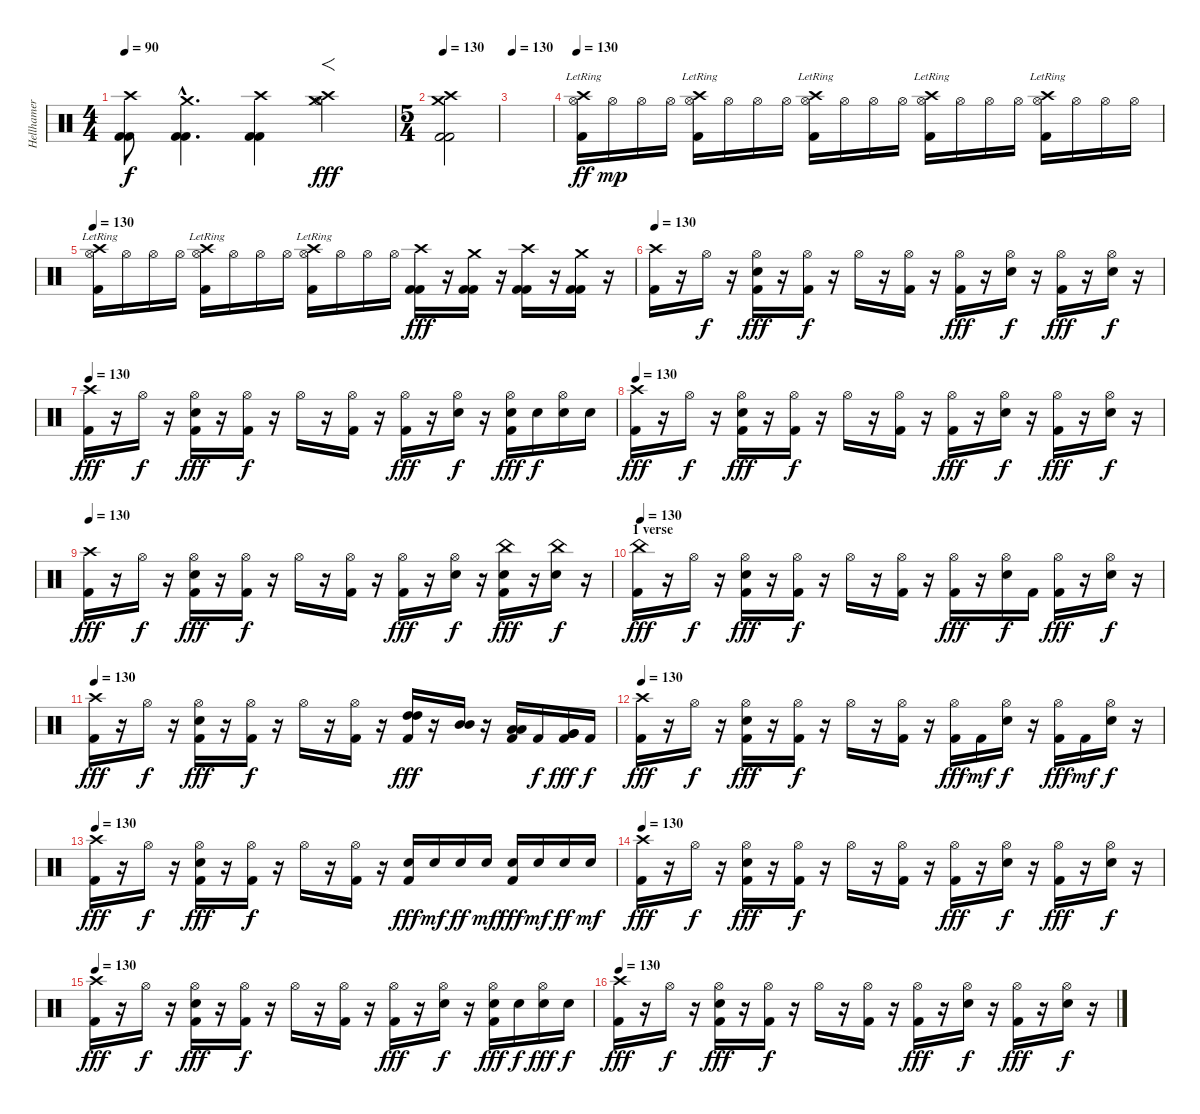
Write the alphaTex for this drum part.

\track ("Hellhamer" "Hellhamer") {instrument percussion}
\staff {score}
\articulation defaults
\ts (4 4)
\tempo 90
\clef neutral
\ks c
("Crash high (hit)" "Kick (hit) 2" "Kick (hit) 2").8{dy f} ("Crash medium (hit)"{hac} "Kick (hit) 2"{hac} "Kick (hit) 2"{hac}).4{d} ("Crash high (hit)" "Kick (hit) 2" "Kick (hit) 2").4 ("Crash high (hit)" "Crash medium (hit)" "Hi-Hat (open)").4{f dy fff} |
\ts (5 4)
\tempo 130
("Crash high (hit)" "Crash medium (hit)" "Kick (hit) 2" "Kick (hit) 2").2 |
\tempo 130
|
\tempo 130
("Hi-Hat (open)" "Crash high (hit)"{lr} "Kick (hit) 2").16{dy ff} "Hi-Hat (open)".16{dy mp} "Hi-Hat (open)".16 "Hi-Hat (open)".16 ("Hi-Hat (open)" "Crash high (hit)"{lr} "Kick (hit) 2").16 "Hi-Hat (open)".16 "Hi-Hat (open)".16 "Hi-Hat (open)".16 ("Hi-Hat (open)" "Crash high (hit)"{lr} "Kick (hit) 2").16 "Hi-Hat (open)".16 "Hi-Hat (open)".16 "Hi-Hat (open)".16 ("Hi-Hat (open)" "Crash high (hit)"{lr} "Kick (hit) 2").16 "Hi-Hat (open)".16 "Hi-Hat (open)".16 "Hi-Hat (open)".16 ("Hi-Hat (open)" "Crash high (hit)"{lr} "Kick (hit) 2").16 "Hi-Hat (open)".16 "Hi-Hat (open)".16 "Hi-Hat (open)".16 |
\tempo 130
("Hi-Hat (open)" "Crash high (hit)"{lr} "Kick (hit) 2").16 "Hi-Hat (open)".16 "Hi-Hat (open)".16 "Hi-Hat (open)".16 ("Hi-Hat (open)" "Crash high (hit)"{lr} "Kick (hit) 2").16 "Hi-Hat (open)".16 "Hi-Hat (open)".16 "Hi-Hat (open)".16 ("Hi-Hat (open)" "Crash high (hit)"{lr} "Kick (hit) 2").16 "Hi-Hat (open)".16 "Hi-Hat (open)".16 "Hi-Hat (open)".16 ("Crash high (hit)" "Kick (hit) 2" "Kick (hit) 2").16{dy fff} r.16 ("Crash medium (hit)" "Kick (hit) 2" "Kick (hit) 2").16 r.16 ("Crash high (hit)" "Kick (hit) 2" "Kick (hit) 2").16 r.16 ("Crash medium (hit)" "Kick (hit) 2" "Kick (hit) 2").16 r.16 |
\tempo 130
("Crash high (hit)" "Kick (hit) 2").16 r.16 "Hi-Hat (open)".16{dy f} r.16 ("Hi-Hat (open)" "Electric Snare (hit)" "Kick (hit) 2").16{dy fff} r.16 ("Hi-Hat (open)" "Kick (hit) 2").16{dy f} r.16 "Hi-Hat (open)".16 r.16 ("Hi-Hat (open)" "Kick (hit) 2").16 r.16 ("Hi-Hat (open)" "Kick (hit) 2").16{dy fff} r.16 ("Hi-Hat (open)" "Electric Snare (hit)").16{dy f} r.16 ("Hi-Hat (open)" "Kick (hit) 2").16{dy fff} r.16 ("Hi-Hat (open)" "Electric Snare (hit)").16{dy f} r.16 |
\tempo 130
("Crash high (hit)" "Kick (hit) 2").16{dy fff} r.16 "Hi-Hat (open)".16{dy f} r.16 ("Hi-Hat (open)" "Electric Snare (hit)" "Kick (hit) 2").16{dy fff} r.16 ("Hi-Hat (open)" "Kick (hit) 2").16{dy f} r.16 "Hi-Hat (open)".16 r.16 ("Hi-Hat (open)" "Kick (hit) 2").16 r.16 ("Hi-Hat (open)" "Kick (hit) 2").16{dy fff} r.16 ("Hi-Hat (open)" "Electric Snare (hit)").16{dy f} r.16 ("Hi-Hat (open)" "Electric Snare (hit)" "Kick (hit) 2").16{dy fff} "Electric Snare (hit)".16{dy f} ("Hi-Hat (open)" "Electric Snare (hit)").16 "Electric Snare (hit)".16 |
\tempo 130
("Crash high (hit)" "Kick (hit) 2").16{dy fff} r.16 "Hi-Hat (open)".16{dy f} r.16 ("Hi-Hat (open)" "Electric Snare (hit)" "Kick (hit) 2").16{dy fff} r.16 ("Hi-Hat (open)" "Kick (hit) 2").16{dy f} r.16 "Hi-Hat (open)".16 r.16 ("Hi-Hat (open)" "Kick (hit) 2").16 r.16 ("Hi-Hat (open)" "Kick (hit) 2").16{dy fff} r.16 ("Hi-Hat (open)" "Electric Snare (hit)").16{dy f} r.16 ("Hi-Hat (open)" "Kick (hit) 2").16{dy fff} r.16 ("Hi-Hat (open)" "Electric Snare (hit)").16{dy f} r.16 |
\tempo 130
("Crash high (hit)" "Kick (hit) 2").16{dy fff} r.16 "Hi-Hat (open)".16{dy f} r.16 ("Hi-Hat (open)" "Electric Snare (hit)" "Kick (hit) 2").16{dy fff} r.16 ("Hi-Hat (open)" "Kick (hit) 2").16{dy f} r.16 "Hi-Hat (open)".16 r.16 ("Hi-Hat (open)" "Kick (hit) 2").16 r.16 ("Hi-Hat (open)" "Kick (hit) 2").16{dy fff} r.16 ("Hi-Hat (open)" "Electric Snare (hit)").16{dy f} r.16 ("China (hit)" "Electric Snare (hit)" "Kick (hit) 2").16{dy fff} r.16 ("China (hit)" "Electric Snare (hit)").16{dy f} r.16 |
\section ("" "1 verse")
\tempo 130
("China (hit)" "Kick (hit) 2").16{dy fff} r.16 "Hi-Hat (open)".16{dy f} r.16 ("Hi-Hat (open)" "Electric Snare (hit)" "Kick (hit) 2").16{dy fff} r.16 ("Hi-Hat (open)" "Kick (hit) 2").16{dy f} r.16 "Hi-Hat (open)".16 r.16 ("Hi-Hat (open)" "Kick (hit) 2").16 r.16 ("Hi-Hat (open)" "Kick (hit) 2").16{dy fff} r.16 ("Hi-Hat (open)" "Electric Snare (hit)").16{dy f} "Kick (hit) 2".16 ("Hi-Hat (open)" "Kick (hit) 2").16{dy fff} r.16 ("Hi-Hat (open)" "Electric Snare (hit)").16{dy f} r.16 |
\tempo 130
("Crash high (hit)" "Kick (hit) 2").16{dy fff} r.16 "Hi-Hat (open)".16{dy f} r.16 ("Hi-Hat (open)" "Electric Snare (hit)" "Kick (hit) 2").16{dy fff} r.16 ("Hi-Hat (open)" "Kick (hit) 2").16{dy f} r.16 "Hi-Hat (open)".16 r.16 ("Hi-Hat (open)" "Kick (hit) 2").16 r.16 ("High Tom (hit)" "High Tom (hit)" "Kick (hit) 2").16{dy fff} r.16 ("Mid Tom (hit)" "Mid Tom (hit)").16 r.16 ("Low Tom (hit)" "Low Tom (hit)" "Kick (hit) 2").16 "Kick (hit) 2".16{dy f} ("Very Low Tom (hit)" "Very Low Tom (hit)" "Kick (hit) 2").16{dy fff} "Kick (hit) 2".16{dy f} |
\tempo 130
("Crash high (hit)" "Kick (hit) 2").16{dy fff} r.16 "Hi-Hat (open)".16{dy f} r.16 ("Hi-Hat (open)" "Electric Snare (hit)" "Kick (hit) 2").16{dy fff} r.16 ("Hi-Hat (open)" "Kick (hit) 2").16{dy f} r.16 "Hi-Hat (open)".16 r.16 ("Hi-Hat (open)" "Kick (hit) 2").16 r.16 ("Hi-Hat (open)" "Kick (hit) 2").16{dy fff} "Kick (hit) 2".16{dy mf} ("Hi-Hat (open)" "Electric Snare (hit)").16{dy f} r.16 ("Hi-Hat (open)" "Kick (hit) 2").16{dy fff} "Kick (hit) 2".16{dy mf} ("Hi-Hat (open)" "Electric Snare (hit)").16{dy f} r.16 |
\tempo 130
("Crash high (hit)" "Kick (hit) 2").16{dy fff} r.16 "Hi-Hat (open)".16{dy f} r.16 ("Hi-Hat (open)" "Electric Snare (hit)" "Kick (hit) 2").16{dy fff} r.16 ("Hi-Hat (open)" "Kick (hit) 2").16{dy f} r.16 "Hi-Hat (open)".16 r.16 ("Hi-Hat (open)" "Kick (hit) 2").16 r.16 ("Electric Snare (hit)" "Kick (hit) 2").16{dy fff} "Electric Snare (hit)".16{dy mf} "Electric Snare (hit)".16{dy ff} "Electric Snare (hit)".16{dy mf} ("Electric Snare (hit)" "Kick (hit) 2").16{dy fff} "Electric Snare (hit)".16{dy mf} "Electric Snare (hit)".16{dy ff} "Electric Snare (hit)".16{dy mf} |
\tempo 130
("Crash high (hit)" "Kick (hit) 2").16{dy fff} r.16 "Hi-Hat (open)".16{dy f} r.16 ("Hi-Hat (open)" "Electric Snare (hit)" "Kick (hit) 2").16{dy fff} r.16 ("Hi-Hat (open)" "Kick (hit) 2").16{dy f} r.16 "Hi-Hat (open)".16 r.16 ("Hi-Hat (open)" "Kick (hit) 2").16 r.16 ("Hi-Hat (open)" "Kick (hit) 2").16{dy fff} r.16 ("Hi-Hat (open)" "Electric Snare (hit)").16{dy f} r.16 ("Hi-Hat (open)" "Kick (hit) 2").16{dy fff} r.16 ("Hi-Hat (open)" "Electric Snare (hit)").16{dy f} r.16 |
\tempo 130
("Crash high (hit)" "Kick (hit) 2").16{dy fff} r.16 "Hi-Hat (open)".16{dy f} r.16 ("Hi-Hat (open)" "Electric Snare (hit)" "Kick (hit) 2").16{dy fff} r.16 ("Hi-Hat (open)" "Kick (hit) 2").16{dy f} r.16 "Hi-Hat (open)".16 r.16 ("Hi-Hat (open)" "Kick (hit) 2").16 r.16 ("Hi-Hat (open)" "Kick (hit) 2").16{dy fff} r.16 ("Hi-Hat (open)" "Electric Snare (hit)").16{dy f} r.16 ("Hi-Hat (open)" "Electric Snare (hit)" "Kick (hit) 2").16{dy fff} "Electric Snare (hit)".16{dy f} ("Hi-Hat (open)" "Electric Snare (hit)").16{dy fff} "Electric Snare (hit)".16{dy f} |
\tempo 130
("Crash high (hit)" "Kick (hit) 2").16{dy fff} r.16 "Hi-Hat (open)".16{dy f} r.16 ("Hi-Hat (open)" "Electric Snare (hit)" "Kick (hit) 2").16{dy fff} r.16 ("Hi-Hat (open)" "Kick (hit) 2").16{dy f} r.16 "Hi-Hat (open)".16 r.16 ("Hi-Hat (open)" "Kick (hit) 2").16 r.16 ("Hi-Hat (open)" "Kick (hit) 2").16{dy fff} r.16 ("Hi-Hat (open)" "Electric Snare (hit)").16{dy f} r.16 ("Hi-Hat (open)" "Kick (hit) 2").16{dy fff} r.16 ("Hi-Hat (open)" "Electric Snare (hit)").16{dy f} r.16
